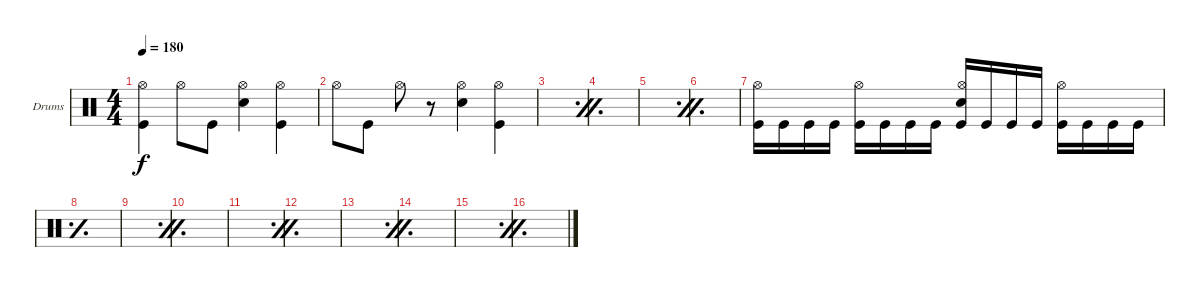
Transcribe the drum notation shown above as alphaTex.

\defaultSystemsLayout 4
\bracketExtendMode groupsimilarinstruments
\firstSystemTrackNameOrientation horizontal
\otherSystemsTrackNameOrientation horizontal
\track ("Drumkit" "Drums") {instrument percussion}
\staff {score}
\articulation defaults
\ts (4 4)
\tempo 180
\clef neutral
\ks c
("Kick (hit)" "Hi-Hat (open)").4{dy f} "Hi-Hat (open)".8 "Kick (hit)".8 ("Snare (hit) 2" "Hi-Hat (open)").4 ("Kick (hit)" "Hi-Hat (open)").4 |
"Hi-Hat (open)".8 "Kick (hit)".8 "Hi-Hat (open)".8 r.8 ("Snare (hit) 2" "Hi-Hat (open)").4 ("Kick (hit)" "Hi-Hat (open)").4 |
\simile firstofdouble
|
\simile secondofdouble
|
\simile firstofdouble
|
\simile secondofdouble
|
\simile none
("Kick (hit)" "Hi-Hat (open)").16 "Kick (hit)".16 "Kick (hit)".16 "Kick (hit)".16 ("Kick (hit)" "Hi-Hat (open)").16 "Kick (hit)".16 "Kick (hit)".16 "Kick (hit)".16 ("Kick (hit)" "Hi-Hat (open)" "Snare (hit) 2").16 "Kick (hit)".16 "Kick (hit)".16 "Kick (hit)".16 ("Kick (hit)" "Hi-Hat (open)").16 "Kick (hit)".16 "Kick (hit)".16 "Kick (hit)".16 |
\simile simple
|
\simile firstofdouble
|
\simile secondofdouble
|
\simile firstofdouble
|
\simile secondofdouble
|
\simile firstofdouble
|
\simile secondofdouble
|
\simile firstofdouble
|
\simile secondofdouble
